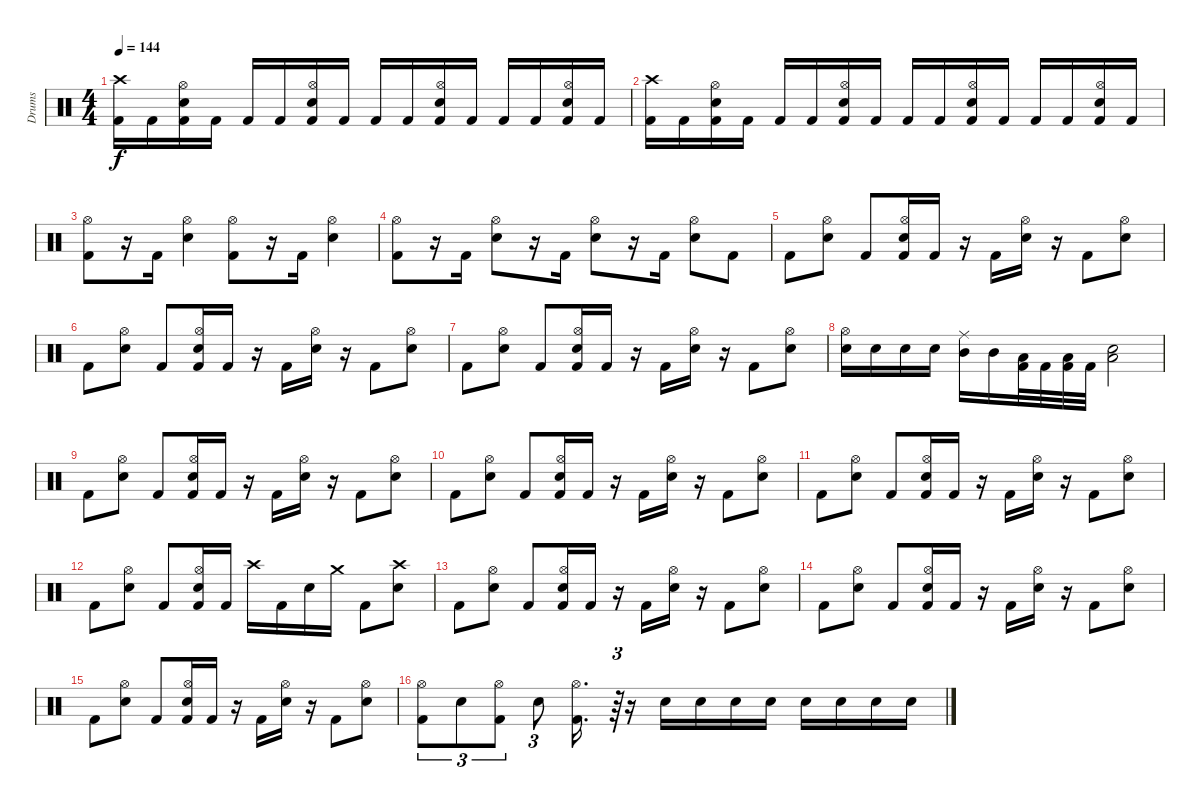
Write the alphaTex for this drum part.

\track ("Drums" "Drums") {instrument percussion}
\staff {score}
\articulation defaults
\ts (4 4)
\tempo 144
\clef neutral
\ks c
("Crash high (hit)" "Kick (hit) 2").16{dy f} "Kick (hit) 2".16 ("Hi-Hat (open)" "Snare (hit) 2" "Kick (hit) 2").16 "Kick (hit) 2".16 "Kick (hit) 2".16 "Kick (hit) 2".16 ("Hi-Hat (open)" "Snare (hit) 2" "Kick (hit) 2").16 "Kick (hit) 2".16 "Kick (hit) 2".16 "Kick (hit) 2".16 ("Hi-Hat (open)" "Snare (hit) 2" "Kick (hit) 2").16 "Kick (hit) 2".16 "Kick (hit) 2".16 "Kick (hit) 2".16 ("Hi-Hat (open)" "Snare (hit) 2" "Kick (hit) 2").16 "Kick (hit) 2".16 |
("Crash high (hit)" "Kick (hit) 2").16 "Kick (hit) 2".16 ("Hi-Hat (open)" "Snare (hit) 2" "Kick (hit) 2").16 "Kick (hit) 2".16 "Kick (hit) 2".16 "Kick (hit) 2".16 ("Hi-Hat (open)" "Snare (hit) 2" "Kick (hit) 2").16 "Kick (hit) 2".16 "Kick (hit) 2".16 "Kick (hit) 2".16 ("Hi-Hat (open)" "Snare (hit) 2" "Kick (hit) 2").16 "Kick (hit) 2".16 "Kick (hit) 2".16 "Kick (hit) 2".16 ("Hi-Hat (open)" "Snare (hit) 2" "Kick (hit) 2").16 "Kick (hit) 2".16 |
("Hi-Hat (open)" "Kick (hit) 2").8 r.16 "Kick (hit) 2".16 ("Hi-Hat (open)" "Snare (hit) 2").4 ("Hi-Hat (open)" "Kick (hit) 2").8 r.16 "Kick (hit) 2".16 ("Hi-Hat (open)" "Snare (hit) 2").4 |
("Hi-Hat (open)" "Kick (hit) 2").8 r.16 "Kick (hit) 2".16 ("Hi-Hat (open)" "Snare (hit) 2").8 r.16 "Kick (hit) 2".16 ("Hi-Hat (open)" "Snare (hit) 2").8 r.16 "Kick (hit) 2".16 ("Hi-Hat (open)" "Snare (hit) 2").8 "Kick (hit) 2".8 |
"Kick (hit) 2".8 ("Hi-Hat (open)" "Snare (hit) 2").8 "Kick (hit) 2".8 ("Hi-Hat (open)" "Snare (hit) 2" "Kick (hit) 2").16 "Kick (hit) 2".16 r.16 "Kick (hit) 2".16 ("Hi-Hat (open)" "Snare (hit) 2").16 r.16 "Kick (hit) 2".8 ("Hi-Hat (open)" "Snare (hit) 2").8 |
"Kick (hit) 2".8 ("Hi-Hat (open)" "Snare (hit) 2").8 "Kick (hit) 2".8 ("Hi-Hat (open)" "Snare (hit) 2" "Kick (hit) 2").16 "Kick (hit) 2".16 r.16 "Kick (hit) 2".16 ("Hi-Hat (open)" "Snare (hit) 2").16 r.16 "Kick (hit) 2".8 ("Hi-Hat (open)" "Snare (hit) 2").8 |
"Kick (hit) 2".8 ("Hi-Hat (open)" "Snare (hit) 2").8 "Kick (hit) 2".8 ("Hi-Hat (open)" "Snare (hit) 2" "Kick (hit) 2").16 "Kick (hit) 2".16 r.16 "Kick (hit) 2".16 ("Hi-Hat (open)" "Snare (hit) 2").16 r.16 "Kick (hit) 2".8 ("Hi-Hat (open)" "Snare (hit) 2").8 |
("Hi-Hat (open)" "Electric Snare (hit)").16 "Electric Snare (hit)".16 "Electric Snare (hit)".16 "Electric Snare (hit)".16 ("Ride (middle)" "Mid Tom (hit)").16 "Mid Tom (hit)".16 ("Low Tom (hit)" "Kick (hit) 2").32 "Kick (hit) 2".32 ("Low Tom (hit)" "Kick (hit) 2").32 "Kick (hit) 2".32 ("Low Floor Tom (hit)" "Snare (hit) 2").2 |
"Kick (hit) 2".8 ("Hi-Hat (open)" "Snare (hit) 2").8 "Kick (hit) 2".8 ("Hi-Hat (open)" "Snare (hit) 2" "Kick (hit) 2").16 "Kick (hit) 2".16 r.16 "Kick (hit) 2".16 ("Hi-Hat (open)" "Snare (hit) 2").16 r.16 "Kick (hit) 2".8 ("Hi-Hat (open)" "Snare (hit) 2").8 |
"Kick (hit) 2".8 ("Hi-Hat (open)" "Snare (hit) 2").8 "Kick (hit) 2".8 ("Hi-Hat (open)" "Snare (hit) 2" "Kick (hit) 2").16 "Kick (hit) 2".16 r.16 "Kick (hit) 2".16 ("Hi-Hat (open)" "Snare (hit) 2").16 r.16 "Kick (hit) 2".8 ("Hi-Hat (open)" "Snare (hit) 2").8 |
"Kick (hit) 2".8 ("Hi-Hat (open)" "Snare (hit) 2").8 "Kick (hit) 2".8 ("Hi-Hat (open)" "Snare (hit) 2" "Kick (hit) 2").16 "Kick (hit) 2".16 r.16 "Kick (hit) 2".16 ("Hi-Hat (open)" "Snare (hit) 2").16 r.16 "Kick (hit) 2".8 ("Hi-Hat (open)" "Snare (hit) 2").8 |
"Kick (hit) 2".8 ("Hi-Hat (open)" "Snare (hit) 2").8 "Kick (hit) 2".8 ("Hi-Hat (open)" "Snare (hit) 2" "Kick (hit) 2").16 "Kick (hit) 2".16 "Crash high (hit)".16 "Kick (hit) 2".16 "Snare (hit) 2".16 "Crash medium (hit)".16 "Kick (hit) 2".8 ("Crash high (hit)" "Snare (hit) 2").8 |
"Kick (hit) 2".8 ("Hi-Hat (open)" "Snare (hit) 2").8 "Kick (hit) 2".8 ("Hi-Hat (open)" "Snare (hit) 2" "Kick (hit) 2").16 "Kick (hit) 2".16 r.16 "Kick (hit) 2".16 ("Hi-Hat (open)" "Snare (hit) 2").16 r.16 "Kick (hit) 2".8 ("Hi-Hat (open)" "Snare (hit) 2").8 |
"Kick (hit) 2".8 ("Hi-Hat (open)" "Snare (hit) 2").8 "Kick (hit) 2".8 ("Hi-Hat (open)" "Snare (hit) 2" "Kick (hit) 2").16 "Kick (hit) 2".16 r.16 "Kick (hit) 2".16 ("Hi-Hat (open)" "Snare (hit) 2").16 r.16 "Kick (hit) 2".8 ("Hi-Hat (open)" "Snare (hit) 2").8 |
"Kick (hit) 2".8 ("Hi-Hat (open)" "Snare (hit) 2").8 "Kick (hit) 2".8 ("Hi-Hat (open)" "Snare (hit) 2" "Kick (hit) 2").16 "Kick (hit) 2".16 r.16 "Kick (hit) 2".16 ("Hi-Hat (open)" "Snare (hit) 2").16 r.16 "Kick (hit) 2".8 ("Hi-Hat (open)" "Snare (hit) 2").8 |
("Hi-Hat (open)" "Kick (hit) 2").8{tu (3 2)} "Snare (hit) 2".8{tu (3 2)} ("Hi-Hat (open)" "Kick (hit) 2").8{tu (3 2)} "Snare (hit) 2".8{tu (3 2)} ("Hi-Hat (open)" "Kick (hit) 2").16{d} r.64{tu (3 2)} r.16 "Snare (hit) 2".16 "Snare (hit) 2".16 "Snare (hit) 2".16 "Snare (hit) 2".16 "Snare (hit) 2".16 "Snare (hit) 2".16 "Snare (hit) 2".16 "Snare (hit) 2".16
